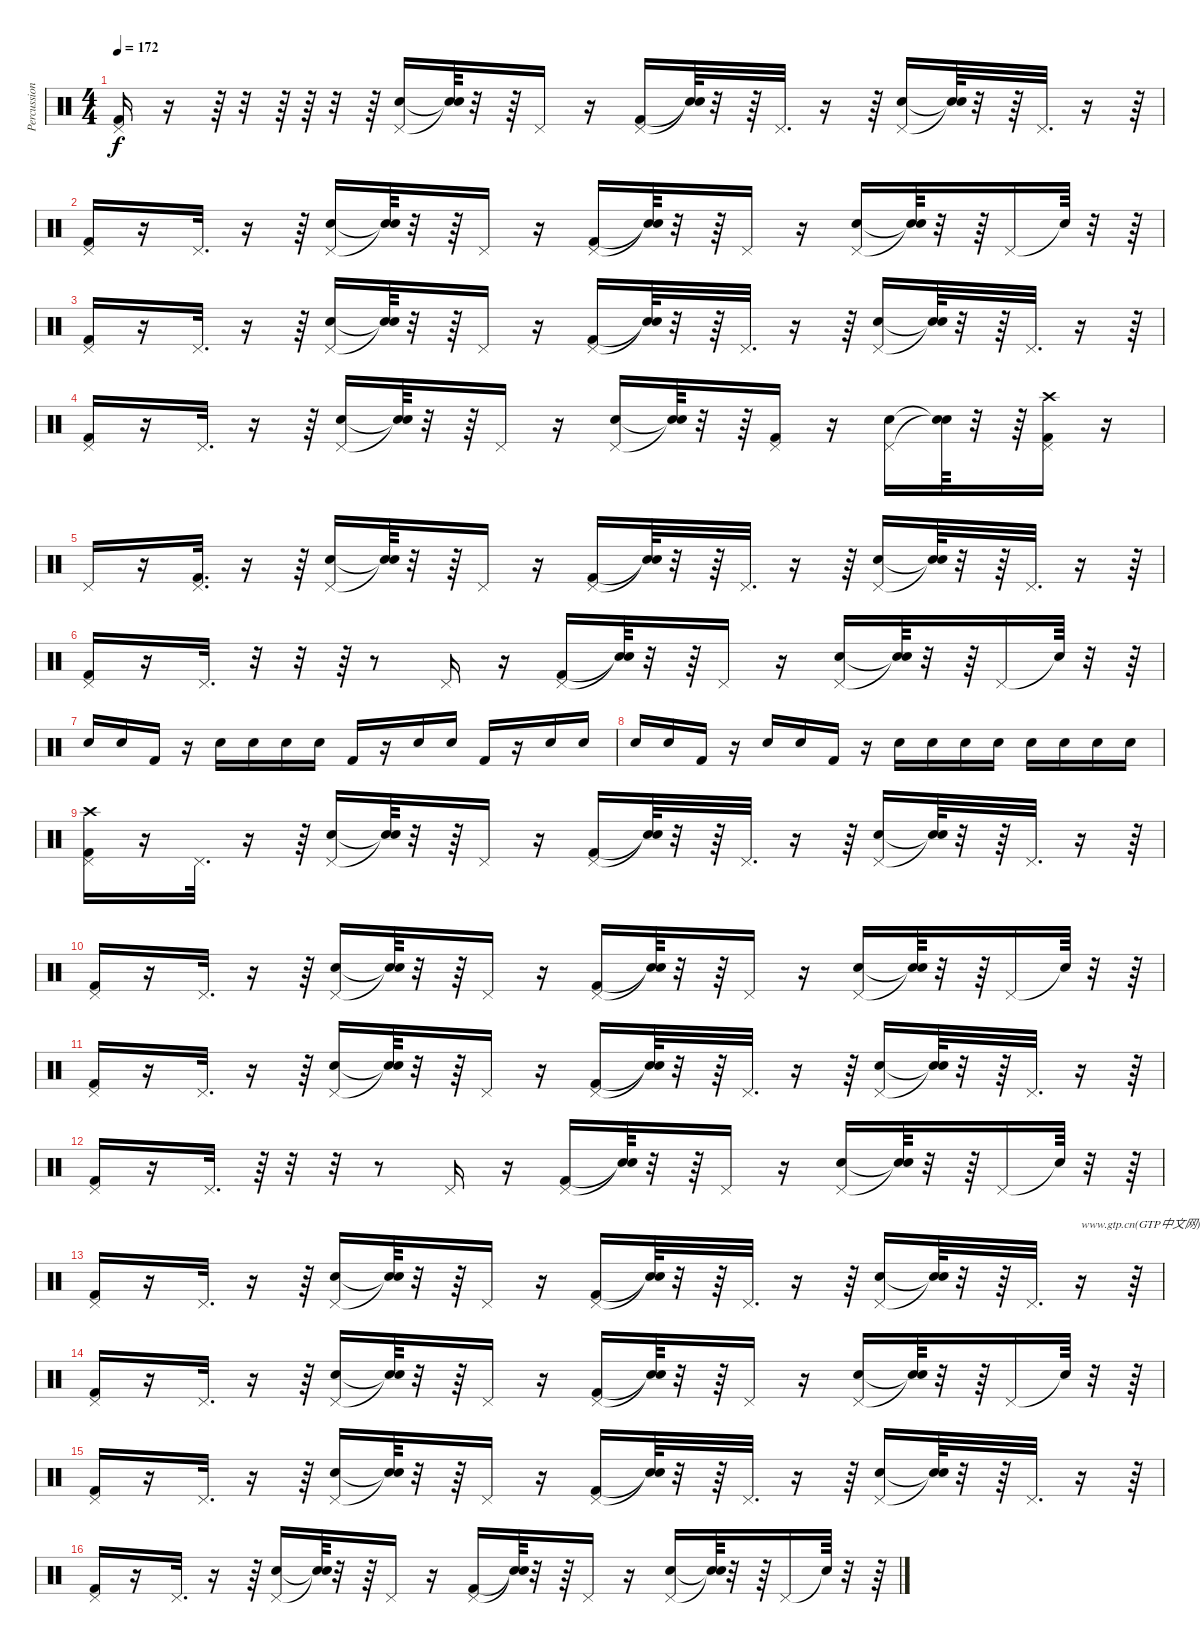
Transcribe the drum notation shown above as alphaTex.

\track ("Percussions" "Percussion") {instrument percussion}
\staff {score}
\articulation defaults
\ts (4 4)
\tempo 172
\clef neutral
\ks c
("Pedal Hi-Hat (hit)" "Kick (hit) 2").16{dy f} r.16 r.64 r.32 r.64 r.64 r.32 r.64 ("Pedal Hi-Hat (hit)" "Snare (hit) 2").16 ("Snare (hit)"{t} "Snare (hit)"{t}).64 r.32 r.64 "Pedal Hi-Hat (hit)".16 r.16 ("Pedal Hi-Hat (hit)" "Kick (hit) 2").16 ("Snare (hit)"{t} "Snare (hit)"{t}).64 r.32 r.64 "Pedal Hi-Hat (hit)".32{d} r.16 r.64 ("Pedal Hi-Hat (hit)" "Snare (hit) 2").16 ("Snare (hit)"{t} "Snare (hit)"{t}).64 r.32 r.64 "Pedal Hi-Hat (hit)".32{d} r.16 r.64 |
("Pedal Hi-Hat (hit)" "Kick (hit) 2").16 r.16 "Pedal Hi-Hat (hit)".32{d} r.16 r.64 ("Pedal Hi-Hat (hit)" "Snare (hit) 2").16 ("Snare (hit)"{t} "Snare (hit)"{t}).64 r.32 r.64 "Pedal Hi-Hat (hit)".16 r.16 ("Pedal Hi-Hat (hit)" "Kick (hit) 2").16 ("Snare (hit)"{t} "Snare (hit)"{t}).64 r.32 r.64 "Pedal Hi-Hat (hit)".16 r.16 ("Pedal Hi-Hat (hit)" "Snare (hit) 2").16 ("Snare (hit)"{t} "Snare (hit)"{t}).64 r.32 r.64 "Pedal Hi-Hat (hit)".16 "Snare (hit)"{t}.64 r.32 r.64 |
("Pedal Hi-Hat (hit)" "Kick (hit) 2").16 r.16 "Pedal Hi-Hat (hit)".32{d} r.16 r.64 ("Pedal Hi-Hat (hit)" "Snare (hit) 2").16 ("Snare (hit)"{t} "Snare (hit)"{t}).64 r.32 r.64 "Pedal Hi-Hat (hit)".16 r.16 ("Pedal Hi-Hat (hit)" "Kick (hit) 2").16 ("Snare (hit)"{t} "Snare (hit)"{t}).64 r.32 r.64 "Pedal Hi-Hat (hit)".32{d} r.16 r.64 ("Pedal Hi-Hat (hit)" "Snare (hit) 2").16 ("Snare (hit)"{t} "Snare (hit)"{t}).64 r.32 r.64 "Pedal Hi-Hat (hit)".32{d} r.16 r.64 |
("Pedal Hi-Hat (hit)" "Kick (hit) 2").16 r.16 "Pedal Hi-Hat (hit)".32{d} r.16 r.64 ("Pedal Hi-Hat (hit)" "Snare (hit) 2").16 ("Snare (hit)"{t} "Snare (hit)"{t}).64 r.32 r.64 "Pedal Hi-Hat (hit)".16 r.16 ("Pedal Hi-Hat (hit)" "Snare (hit) 2").16 ("Snare (hit)"{t} "Snare (hit)"{t}).64 r.32 r.64 ("Pedal Hi-Hat (hit)" "Kick (hit) 2").16 r.16 ("Pedal Hi-Hat (hit)" "Snare (hit) 2").16 ("Snare (hit)"{t} "Snare (hit)"{t}).64 r.32 r.64 ("Crash high (hit)" "Pedal Hi-Hat (hit)" "Kick (hit) 2").16 r.16 |
"Pedal Hi-Hat (hit)".16 r.16 ("Pedal Hi-Hat (hit)" "Kick (hit) 2").32{d} r.16 r.64 ("Pedal Hi-Hat (hit)" "Snare (hit) 2").16 ("Snare (hit)"{t} "Snare (hit)"{t}).64 r.32 r.64 "Pedal Hi-Hat (hit)".16 r.16 ("Pedal Hi-Hat (hit)" "Kick (hit) 2").16 ("Snare (hit)"{t} "Snare (hit)"{t}).64 r.32 r.64 "Pedal Hi-Hat (hit)".32{d} r.16 r.64 ("Pedal Hi-Hat (hit)" "Snare (hit) 2").16 ("Snare (hit)"{t} "Snare (hit)"{t}).64 r.32 r.64 "Pedal Hi-Hat (hit)".32{d} r.16 r.64 |
("Pedal Hi-Hat (hit)" "Kick (hit) 2").16 r.16 "Pedal Hi-Hat (hit)".32{d} r.32 r.32 r.64 r.8 "Pedal Hi-Hat (hit)".16 r.16 ("Pedal Hi-Hat (hit)" "Kick (hit) 2").16 ("Snare (hit)"{t} "Snare (hit)"{t}).64 r.32 r.64 "Pedal Hi-Hat (hit)".16 r.16 ("Pedal Hi-Hat (hit)" "Snare (hit) 2").16 ("Snare (hit)"{t} "Snare (hit)"{t}).64 r.32 r.64 "Pedal Hi-Hat (hit)".16 "Snare (hit)"{t}.64 r.32 r.64 |
"Snare (hit) 2".16 "Snare (hit) 2".16 "Kick (hit) 2".16 r.16 "Snare (hit) 2".16 "Snare (hit) 2".16 "Snare (hit) 2".16 "Snare (hit) 2".16 "Kick (hit) 2".16 r.16 "Snare (hit) 2".16 "Snare (hit) 2".16 "Kick (hit) 2".16 r.16 "Snare (hit) 2".16 "Snare (hit) 2".16 |
"Snare (hit) 2".16 "Snare (hit) 2".16 "Kick (hit) 2".16 r.16 "Snare (hit) 2".16 "Snare (hit) 2".16 "Kick (hit) 2".16 r.16 "Snare (hit) 2".16 "Snare (hit) 2".16 "Snare (hit) 2".16 "Snare (hit) 2".16 "Snare (hit) 2".16 "Snare (hit) 2".16 "Snare (hit) 2".16 "Snare (hit) 2".16 |
("Pedal Hi-Hat (hit)" "Crash high (hit)" "Kick (hit) 2").16 r.16 "Pedal Hi-Hat (hit)".32{d} r.16 r.64 ("Pedal Hi-Hat (hit)" "Snare (hit) 2").16 ("Snare (hit)"{t} "Snare (hit)"{t}).64 r.32 r.64 "Pedal Hi-Hat (hit)".16 r.16 ("Pedal Hi-Hat (hit)" "Kick (hit) 2").16 ("Snare (hit)"{t} "Snare (hit)"{t}).64 r.32 r.64 "Pedal Hi-Hat (hit)".32{d} r.16 r.64 ("Pedal Hi-Hat (hit)" "Snare (hit) 2").16 ("Snare (hit)"{t} "Snare (hit)"{t}).64 r.32 r.64 "Pedal Hi-Hat (hit)".32{d} r.16 r.64 |
("Pedal Hi-Hat (hit)" "Kick (hit) 2").16 r.16 "Pedal Hi-Hat (hit)".32{d} r.16 r.64 ("Pedal Hi-Hat (hit)" "Snare (hit) 2").16 ("Snare (hit)"{t} "Snare (hit)"{t}).64 r.32 r.64 "Pedal Hi-Hat (hit)".16 r.16 ("Pedal Hi-Hat (hit)" "Kick (hit) 2").16 ("Snare (hit)"{t} "Snare (hit)"{t}).64 r.32 r.64 "Pedal Hi-Hat (hit)".16 r.16 ("Pedal Hi-Hat (hit)" "Snare (hit) 2").16 ("Snare (hit)"{t} "Snare (hit)"{t}).64 r.32 r.64 "Pedal Hi-Hat (hit)".16 "Snare (hit)"{t}.64 r.32 r.64 |
("Pedal Hi-Hat (hit)" "Kick (hit) 2").16 r.16 "Pedal Hi-Hat (hit)".32{d} r.16 r.64 ("Pedal Hi-Hat (hit)" "Snare (hit) 2").16 ("Snare (hit)"{t} "Snare (hit)"{t}).64 r.32 r.64 "Pedal Hi-Hat (hit)".16 r.16 ("Pedal Hi-Hat (hit)" "Kick (hit) 2").16 ("Snare (hit)"{t} "Snare (hit)"{t}).64 r.32 r.64 "Pedal Hi-Hat (hit)".32{d} r.16 r.64 ("Pedal Hi-Hat (hit)" "Snare (hit) 2").16 ("Snare (hit)"{t} "Snare (hit)"{t}).64 r.32 r.64 "Pedal Hi-Hat (hit)".32{d} r.16 r.64 |
("Pedal Hi-Hat (hit)" "Kick (hit) 2").16 r.16 "Pedal Hi-Hat (hit)".32{d} r.64 r.32 r.32 r.8 "Pedal Hi-Hat (hit)".16 r.16 ("Pedal Hi-Hat (hit)" "Kick (hit) 2").16 ("Snare (hit)"{t} "Snare (hit)"{t}).64 r.32 r.64 "Pedal Hi-Hat (hit)".16 r.16 ("Pedal Hi-Hat (hit)" "Snare (hit) 2").16 ("Snare (hit)"{t} "Snare (hit)"{t}).64 r.32 r.64 "Pedal Hi-Hat (hit)".16 "Snare (hit)"{t}.64 r.32 r.64 |
("Pedal Hi-Hat (hit)" "Kick (hit) 2").16 r.16 "Pedal Hi-Hat (hit)".32{d} r.16 r.64 ("Pedal Hi-Hat (hit)" "Snare (hit) 2").16 ("Snare (hit)"{t} "Snare (hit)"{t}).64 r.32 r.64 "Pedal Hi-Hat (hit)".16 r.16 ("Pedal Hi-Hat (hit)" "Kick (hit) 2").16 ("Snare (hit)"{t} "Snare (hit)"{t}).64 r.32 r.64 "Pedal Hi-Hat (hit)".32{d} r.16 r.64 ("Pedal Hi-Hat (hit)" "Snare (hit) 2").16 ("Snare (hit)"{t} "Snare (hit)"{t}).64 r.32 r.64 "Pedal Hi-Hat (hit)".32{d} r.16{txt "www.gtp.cn(GTP中文网)您提供优秀的GTP"} r.64 |
("Pedal Hi-Hat (hit)" "Kick (hit) 2").16 r.16 "Pedal Hi-Hat (hit)".32{d} r.16 r.64 ("Pedal Hi-Hat (hit)" "Snare (hit) 2").16 ("Snare (hit)"{t} "Snare (hit)"{t}).64 r.32 r.64 "Pedal Hi-Hat (hit)".16 r.16 ("Pedal Hi-Hat (hit)" "Kick (hit) 2").16 ("Snare (hit)"{t} "Snare (hit)"{t}).64 r.32 r.64 "Pedal Hi-Hat (hit)".16 r.16 ("Pedal Hi-Hat (hit)" "Snare (hit) 2").16 ("Snare (hit)"{t} "Snare (hit)"{t}).64 r.32 r.64 "Pedal Hi-Hat (hit)".16 "Snare (hit)"{t}.64 r.32 r.64 |
("Pedal Hi-Hat (hit)" "Kick (hit) 2").16 r.16 "Pedal Hi-Hat (hit)".32{d} r.16 r.64 ("Pedal Hi-Hat (hit)" "Snare (hit) 2").16 ("Snare (hit)"{t} "Snare (hit)"{t}).64 r.32 r.64 "Pedal Hi-Hat (hit)".16 r.16 ("Pedal Hi-Hat (hit)" "Kick (hit) 2").16 ("Snare (hit)"{t} "Snare (hit)"{t}).64 r.32 r.64 "Pedal Hi-Hat (hit)".32{d} r.16 r.64 ("Pedal Hi-Hat (hit)" "Snare (hit) 2").16 ("Snare (hit)"{t} "Snare (hit)"{t}).64 r.32 r.64 "Pedal Hi-Hat (hit)".32{d} r.16 r.64 |
("Pedal Hi-Hat (hit)" "Kick (hit) 2").16 r.16 "Pedal Hi-Hat (hit)".32{d} r.16 r.64 ("Pedal Hi-Hat (hit)" "Snare (hit) 2").16 ("Snare (hit)"{t} "Snare (hit)"{t}).64 r.32 r.64 "Pedal Hi-Hat (hit)".16 r.16 ("Pedal Hi-Hat (hit)" "Kick (hit) 2").16 ("Snare (hit)"{t} "Snare (hit)"{t}).64 r.32 r.64 "Pedal Hi-Hat (hit)".16 r.16 ("Pedal Hi-Hat (hit)" "Snare (hit) 2").16 ("Snare (hit)"{t} "Snare (hit)"{t}).64 r.32 r.64 "Pedal Hi-Hat (hit)".16 "Snare (hit)"{t}.64 r.32 r.64
